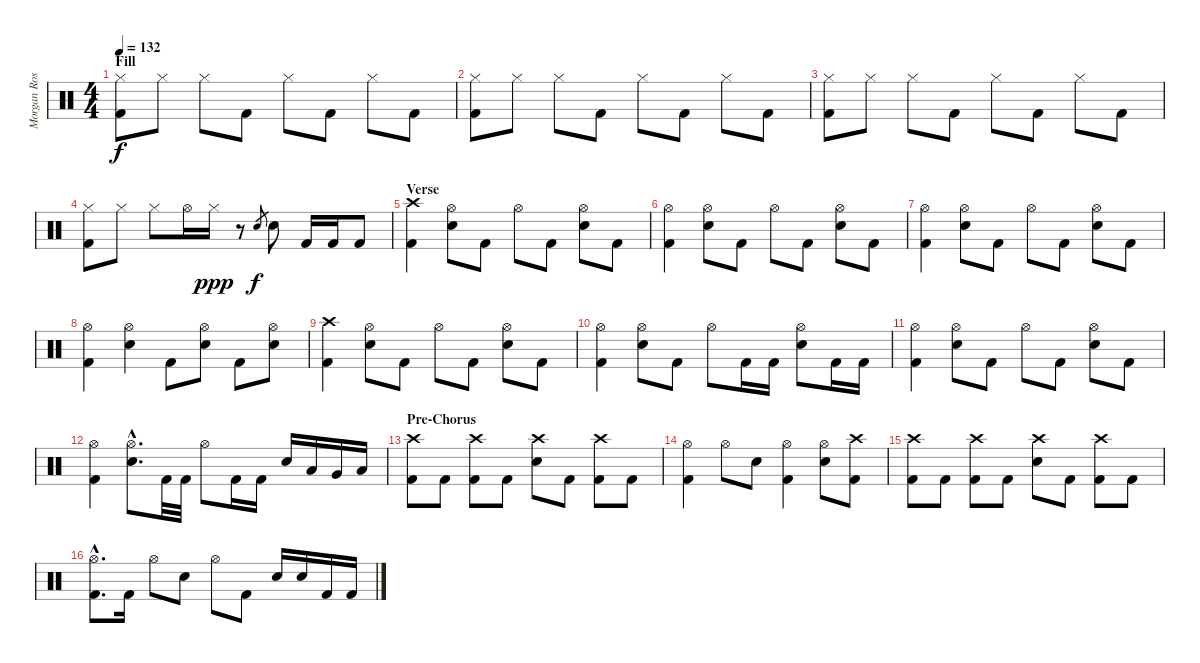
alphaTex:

\track ("Morgan Rose" "Morgan Ros") {instrument percussion}
\staff {score}
\articulation defaults
\ts (4 4)
\section ("" "Fill")
\tempo 132
\clef neutral
\ks c
("Hi-Hat (closed)" "Kick (hit) 2").8{dy f} "Hi-Hat (closed)".8 "Hi-Hat (closed)".8 "Kick (hit) 2".8 "Hi-Hat (closed)".8 "Kick (hit) 2".8 "Hi-Hat (closed)".8 "Kick (hit) 2".8 |
("Hi-Hat (closed)" "Kick (hit) 2").8 "Hi-Hat (closed)".8 "Hi-Hat (closed)".8 "Kick (hit) 2".8 "Hi-Hat (closed)".8 "Kick (hit) 2".8 "Hi-Hat (closed)".8 "Kick (hit) 2".8 |
("Hi-Hat (closed)" "Kick (hit) 2").8 "Hi-Hat (closed)".8 "Hi-Hat (closed)".8 "Kick (hit) 2".8 "Hi-Hat (closed)".8 "Kick (hit) 2".8 "Hi-Hat (closed)".8 "Kick (hit) 2".8 |
("Hi-Hat (closed)" "Kick (hit) 2").8 "Hi-Hat (closed)".8 "Hi-Hat (closed)".8 "Hi-Hat (open)".16 "Hi-Hat (closed)".16{dy ppp} r.8 "Electric Snare (hit)"{h}.8{gr dy f} "Electric Snare (hit)".8 "Kick (hit) 2".16 "Kick (hit) 2".16 "Kick (hit) 2".8 |
\section ("" "Verse")
("Crash high (hit)" "Kick (hit) 2").4 ("Hi-Hat (open)" "Electric Snare (hit)").8 "Kick (hit) 2".8 "Hi-Hat (open)".8 "Kick (hit) 2".8 ("Hi-Hat (open)" "Electric Snare (hit)").8 "Kick (hit) 2".8 |
("Hi-Hat (open)" "Kick (hit) 2").4 ("Hi-Hat (open)" "Electric Snare (hit)").8 "Kick (hit) 2".8 "Hi-Hat (open)".8 "Kick (hit) 2".8 ("Hi-Hat (open)" "Electric Snare (hit)").8 "Kick (hit) 2".8 |
("Hi-Hat (open)" "Kick (hit) 2").4 ("Hi-Hat (open)" "Electric Snare (hit)").8 "Kick (hit) 2".8 "Hi-Hat (open)".8 "Kick (hit) 2".8 ("Hi-Hat (open)" "Electric Snare (hit)").8 "Kick (hit) 2".8 |
("Hi-Hat (open)" "Kick (hit) 2").4 ("Hi-Hat (open)" "Electric Snare (hit)").4 "Kick (hit) 2".8 ("Hi-Hat (open)" "Electric Snare (hit)").8 "Kick (hit) 2".8 ("Hi-Hat (open)" "Electric Snare (hit)").8 |
("Crash high (hit)" "Kick (hit) 2").4 ("Hi-Hat (open)" "Electric Snare (hit)").8 "Kick (hit) 2".8 "Hi-Hat (open)".8 "Kick (hit) 2".8 ("Hi-Hat (open)" "Electric Snare (hit)").8 "Kick (hit) 2".8 |
("Hi-Hat (open)" "Kick (hit) 2").4 ("Hi-Hat (open)" "Electric Snare (hit)").8 "Kick (hit) 2".8 "Hi-Hat (open)".8 "Kick (hit) 2".16 "Kick (hit) 2".16 ("Hi-Hat (open)" "Electric Snare (hit)").8 "Kick (hit) 2".16 "Kick (hit) 2".16 |
("Hi-Hat (open)" "Kick (hit) 2").4 ("Hi-Hat (open)" "Electric Snare (hit)").8 "Kick (hit) 2".8 "Hi-Hat (open)".8 "Kick (hit) 2".8 ("Hi-Hat (open)" "Electric Snare (hit)").8 "Kick (hit) 2".8 |
("Hi-Hat (open)" "Kick (hit) 2").4 ("Hi-Hat (open)"{hac} "Electric Snare (hit)"{hac}).8{d} "Kick (hit) 2".32 "Kick (hit) 2".32 "Hi-Hat (open)".8 "Kick (hit) 2".16 "Kick (hit) 2".16 "Electric Snare (hit)".16 "Low Tom (hit)".16 "Very Low Tom (hit)".16 "Low Floor Tom (hit)".16 |
\section ("" "Pre-Chorus")
("Crash high (hit)" "Kick (hit) 2").8 "Kick (hit) 2".8 ("Crash high (hit)" "Kick (hit) 2").8 "Kick (hit) 2".8 ("Crash high (hit)" "Electric Snare (hit)").8 "Kick (hit) 2".8 ("Crash high (hit)" "Kick (hit) 2").8 "Kick (hit) 2".8 |
("Hi-Hat (open)" "Kick (hit) 2").4 "Hi-Hat (open)".8 "Electric Snare (hit)".8 ("Hi-Hat (open)" "Kick (hit) 2").4 ("Hi-Hat (open)" "Electric Snare (hit)").8 ("Crash high (hit)" "Kick (hit) 2").8 |
("Crash high (hit)" "Kick (hit) 2").8 "Kick (hit) 2".8 ("Crash high (hit)" "Kick (hit) 2").8 "Kick (hit) 2".8 ("Crash high (hit)" "Electric Snare (hit)").8 "Kick (hit) 2".8 ("Crash high (hit)" "Kick (hit) 2").8 "Kick (hit) 2".8 |
("Hi-Hat (open)"{hac} "Kick (hit) 2"{hac}).8{d} "Kick (hit) 2".16 "Hi-Hat (open)".8 "Electric Snare (hit)".8 "Hi-Hat (open)".8 "Kick (hit) 2".8 "Electric Snare (hit)".16 "Electric Snare (hit)".16 "Kick (hit) 2".16 "Kick (hit) 2".16
